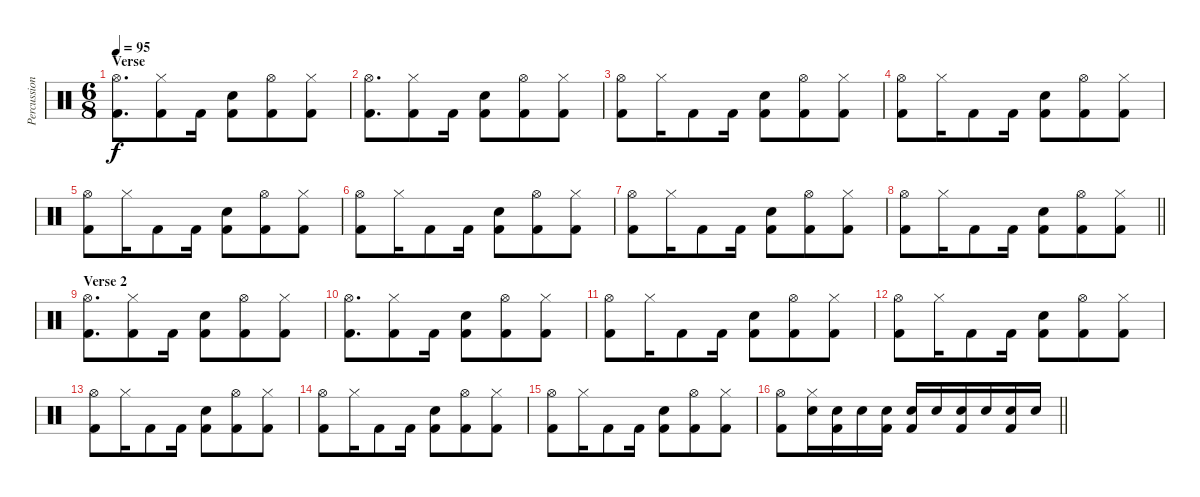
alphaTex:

\track ("Percussion" "Percussion") {instrument percussion}
\staff {score}
\articulation defaults
\ts (6 8)
\section ("" "Verse")
\tempo 95
\clef neutral
\ks c
("Hi-Hat (open)" "Kick (hit) 2").8{d dy f} ("Hi-Hat (closed)" "Kick (hit) 2").8 "Kick (hit) 2".16 ("Snare (hit) 2" "Kick (hit) 2").8 ("Hi-Hat (open)" "Kick (hit) 2").8 ("Hi-Hat (closed)" "Kick (hit) 2").8 |
("Hi-Hat (open)" "Kick (hit) 2").8{d} ("Hi-Hat (closed)" "Kick (hit) 2").8 "Kick (hit) 2".16 ("Snare (hit) 2" "Kick (hit) 2").8 ("Hi-Hat (open)" "Kick (hit) 2").8 ("Hi-Hat (closed)" "Kick (hit) 2").8 |
("Hi-Hat (open)" "Kick (hit) 2").8 "Hi-Hat (closed)".16 "Kick (hit) 2".8 "Kick (hit) 2".16 ("Snare (hit) 2" "Kick (hit) 2").8 ("Hi-Hat (open)" "Kick (hit) 2").8 ("Hi-Hat (closed)" "Kick (hit) 2").8 |
("Hi-Hat (open)" "Kick (hit) 2").8 "Hi-Hat (closed)".16 "Kick (hit) 2".8 "Kick (hit) 2".16 ("Snare (hit) 2" "Kick (hit) 2").8 ("Hi-Hat (open)" "Kick (hit) 2").8 ("Hi-Hat (closed)" "Kick (hit) 2").8 |
("Hi-Hat (open)" "Kick (hit) 2").8 "Hi-Hat (closed)".16 "Kick (hit) 2".8 "Kick (hit) 2".16 ("Snare (hit) 2" "Kick (hit) 2").8 ("Hi-Hat (open)" "Kick (hit) 2").8 ("Hi-Hat (closed)" "Kick (hit) 2").8 |
("Hi-Hat (open)" "Kick (hit) 2").8 "Hi-Hat (closed)".16 "Kick (hit) 2".8 "Kick (hit) 2".16 ("Snare (hit) 2" "Kick (hit) 2").8 ("Hi-Hat (open)" "Kick (hit) 2").8 ("Hi-Hat (closed)" "Kick (hit) 2").8 |
("Hi-Hat (open)" "Kick (hit) 2").8 "Hi-Hat (closed)".16 "Kick (hit) 2".8 "Kick (hit) 2".16 ("Snare (hit) 2" "Kick (hit) 2").8 ("Hi-Hat (open)" "Kick (hit) 2").8 ("Hi-Hat (closed)" "Kick (hit) 2").8 |
\barLineRight lightlight
("Hi-Hat (open)" "Kick (hit) 2").8 "Hi-Hat (closed)".16 "Kick (hit) 2".8 "Kick (hit) 2".16 ("Snare (hit) 2" "Kick (hit) 2").8 ("Hi-Hat (open)" "Kick (hit) 2").8 ("Hi-Hat (closed)" "Kick (hit) 2").8 |
\section ("" "Verse 2")
("Hi-Hat (open)" "Kick (hit) 2").8{d} ("Hi-Hat (closed)" "Kick (hit) 2").8 "Kick (hit) 2".16 ("Snare (hit) 2" "Kick (hit) 2").8 ("Hi-Hat (open)" "Kick (hit) 2").8 ("Hi-Hat (closed)" "Kick (hit) 2").8 |
("Hi-Hat (open)" "Kick (hit) 2").8{d} ("Hi-Hat (closed)" "Kick (hit) 2").8 "Kick (hit) 2".16 ("Snare (hit) 2" "Kick (hit) 2").8 ("Hi-Hat (open)" "Kick (hit) 2").8 ("Hi-Hat (closed)" "Kick (hit) 2").8 |
("Hi-Hat (open)" "Kick (hit) 2").8 "Hi-Hat (closed)".16 "Kick (hit) 2".8 "Kick (hit) 2".16 ("Snare (hit) 2" "Kick (hit) 2").8 ("Hi-Hat (open)" "Kick (hit) 2").8 ("Hi-Hat (closed)" "Kick (hit) 2").8 |
("Hi-Hat (open)" "Kick (hit) 2").8 "Hi-Hat (closed)".16 "Kick (hit) 2".8 "Kick (hit) 2".16 ("Snare (hit) 2" "Kick (hit) 2").8 ("Hi-Hat (open)" "Kick (hit) 2").8 ("Hi-Hat (closed)" "Kick (hit) 2").8 |
("Hi-Hat (open)" "Kick (hit) 2").8 "Hi-Hat (closed)".16 "Kick (hit) 2".8 "Kick (hit) 2".16 ("Snare (hit) 2" "Kick (hit) 2").8 ("Hi-Hat (open)" "Kick (hit) 2").8 ("Hi-Hat (closed)" "Kick (hit) 2").8 |
("Hi-Hat (open)" "Kick (hit) 2").8 "Hi-Hat (closed)".16 "Kick (hit) 2".8 "Kick (hit) 2".16 ("Snare (hit) 2" "Kick (hit) 2").8 ("Hi-Hat (open)" "Kick (hit) 2").8 ("Hi-Hat (closed)" "Kick (hit) 2").8 |
("Hi-Hat (open)" "Kick (hit) 2").8 "Hi-Hat (closed)".16 "Kick (hit) 2".8 "Kick (hit) 2".16 ("Snare (hit) 2" "Kick (hit) 2").8 ("Hi-Hat (open)" "Kick (hit) 2").8 ("Hi-Hat (closed)" "Kick (hit) 2").8 |
\barLineRight lightlight
("Hi-Hat (open)" "Kick (hit) 2").8 ("Hi-Hat (closed)" "Snare (hit) 2").16 ("Snare (hit) 2" "Kick (hit) 2").16 "Snare (hit) 2".16 ("Snare (hit) 2" "Kick (hit) 2").16 ("Snare (hit) 2" "Kick (hit) 2").16 "Snare (hit) 2".16 ("Snare (hit) 2" "Kick (hit) 2").16 "Snare (hit) 2".16 ("Snare (hit) 2" "Kick (hit) 2").16 "Snare (hit) 2".16
